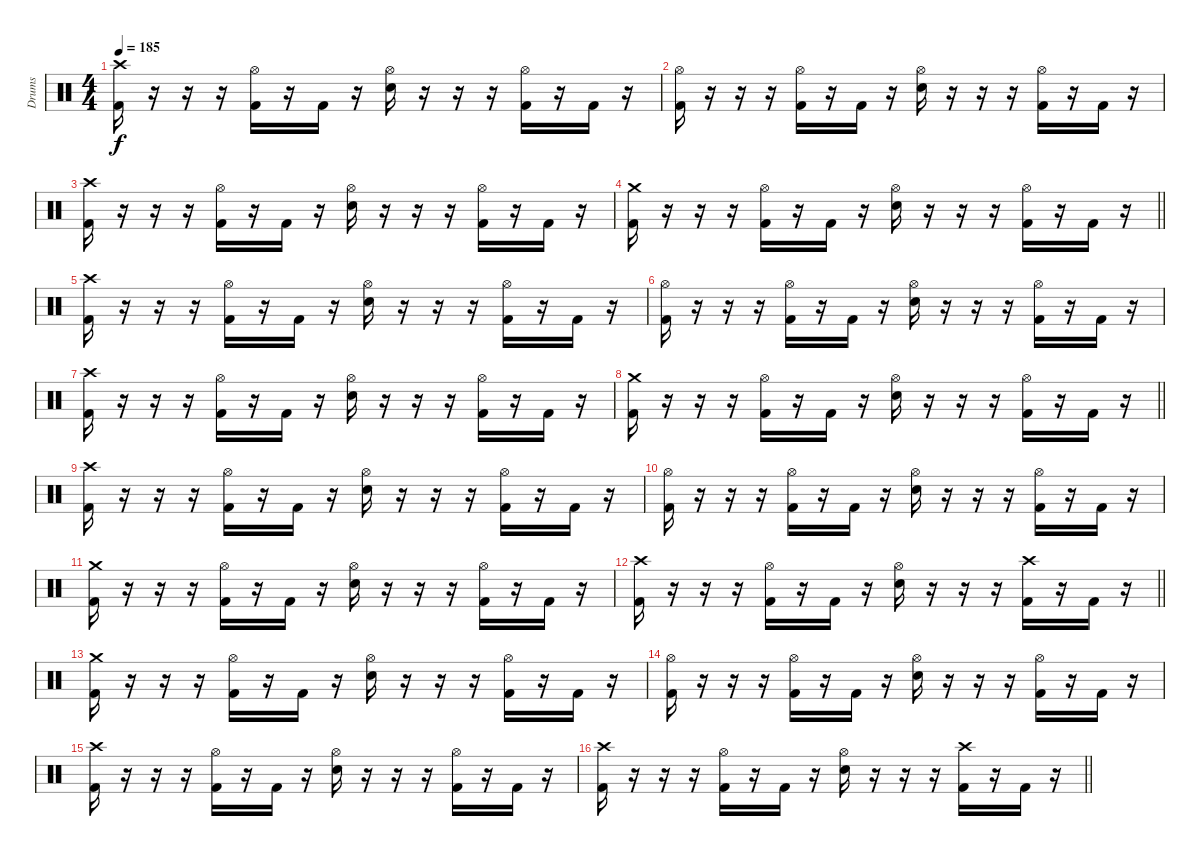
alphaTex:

\track ("Drums" "Drums") {instrument percussion}
\staff {score}
\articulation defaults
\ts (4 4)
\section ("" "")
\tempo 185
\clef neutral
\ks c
("Crash high (hit)" "Kick (hit) 2").16{dy f} r.16 r.16 r.16 ("Hi-Hat (open)" "Kick (hit) 2").16 r.16 "Kick (hit) 2".16 r.16 ("Hi-Hat (open)" "Electric Snare (hit)").16 r.16 r.16 r.16 ("Hi-Hat (open)" "Kick (hit) 2").16 r.16 "Kick (hit) 2".16 r.16 |
("Hi-Hat (open)" "Kick (hit) 2").16 r.16 r.16 r.16 ("Hi-Hat (open)" "Kick (hit) 2").16 r.16 "Kick (hit) 2".16 r.16 ("Hi-Hat (open)" "Electric Snare (hit)").16 r.16 r.16 r.16 ("Hi-Hat (open)" "Kick (hit) 2").16 r.16 "Kick (hit) 2".16 r.16 |
("Crash high (hit)" "Kick (hit) 2").16 r.16 r.16 r.16 ("Hi-Hat (open)" "Kick (hit) 2").16 r.16 "Kick (hit) 2".16 r.16 ("Hi-Hat (open)" "Electric Snare (hit)").16 r.16 r.16 r.16 ("Hi-Hat (open)" "Kick (hit) 2").16 r.16 "Kick (hit) 2".16 r.16 |
\barLineRight lightlight
("Crash medium (hit)" "Kick (hit) 2").16 r.16 r.16 r.16 ("Hi-Hat (open)" "Kick (hit) 2").16 r.16 "Kick (hit) 2".16 r.16 ("Hi-Hat (open)" "Electric Snare (hit)").16 r.16 r.16 r.16 ("Hi-Hat (open)" "Kick (hit) 2").16 r.16 "Kick (hit) 2".16 r.16 |
\section ("" "")
("Crash high (hit)" "Kick (hit) 2").16 r.16 r.16 r.16 ("Hi-Hat (open)" "Kick (hit) 2").16 r.16 "Kick (hit) 2".16 r.16 ("Hi-Hat (open)" "Electric Snare (hit)").16 r.16 r.16 r.16 ("Hi-Hat (open)" "Kick (hit) 2").16 r.16 "Kick (hit) 2".16 r.16 |
("Hi-Hat (open)" "Kick (hit) 2").16 r.16 r.16 r.16 ("Hi-Hat (open)" "Kick (hit) 2").16 r.16 "Kick (hit) 2".16 r.16 ("Hi-Hat (open)" "Electric Snare (hit)").16 r.16 r.16 r.16 ("Hi-Hat (open)" "Kick (hit) 2").16 r.16 "Kick (hit) 2".16 r.16 |
("Crash high (hit)" "Kick (hit) 2").16 r.16 r.16 r.16 ("Hi-Hat (open)" "Kick (hit) 2").16 r.16 "Kick (hit) 2".16 r.16 ("Hi-Hat (open)" "Electric Snare (hit)").16 r.16 r.16 r.16 ("Hi-Hat (open)" "Kick (hit) 2").16 r.16 "Kick (hit) 2".16 r.16 |
\barLineRight lightlight
("Crash medium (hit)" "Kick (hit) 2").16 r.16 r.16 r.16 ("Hi-Hat (open)" "Kick (hit) 2").16 r.16 "Kick (hit) 2".16 r.16 ("Hi-Hat (open)" "Electric Snare (hit)").16 r.16 r.16 r.16 ("Hi-Hat (open)" "Kick (hit) 2").16 r.16 "Kick (hit) 2".16 r.16 |
("Crash high (hit)" "Kick (hit) 2").16 r.16 r.16 r.16 ("Hi-Hat (open)" "Kick (hit) 2").16 r.16 "Kick (hit) 2".16 r.16 ("Hi-Hat (open)" "Electric Snare (hit)").16 r.16 r.16 r.16 ("Hi-Hat (open)" "Kick (hit) 2").16 r.16 "Kick (hit) 2".16 r.16 |
("Hi-Hat (open)" "Kick (hit) 2").16 r.16 r.16 r.16 ("Hi-Hat (open)" "Kick (hit) 2").16 r.16 "Kick (hit) 2".16 r.16 ("Hi-Hat (open)" "Electric Snare (hit)").16 r.16 r.16 r.16 ("Hi-Hat (open)" "Kick (hit) 2").16 r.16 "Kick (hit) 2".16 r.16 |
("Crash medium (hit)" "Kick (hit) 2").16 r.16 r.16 r.16 ("Hi-Hat (open)" "Kick (hit) 2").16 r.16 "Kick (hit) 2".16 r.16 ("Hi-Hat (open)" "Electric Snare (hit)").16 r.16 r.16 r.16 ("Hi-Hat (open)" "Kick (hit) 2").16 r.16 "Kick (hit) 2".16 r.16 |
\barLineRight lightlight
("Crash high (hit)" "Kick (hit) 2").16 r.16 r.16 r.16 ("Hi-Hat (open)" "Kick (hit) 2").16 r.16 "Kick (hit) 2".16 r.16 ("Hi-Hat (open)" "Electric Snare (hit)").16 r.16 r.16 r.16 ("Crash high (hit)" "Kick (hit) 2").16 r.16 "Kick (hit) 2".16 r.16 |
("Crash medium (hit)" "Kick (hit) 2").16 r.16 r.16 r.16 ("Hi-Hat (open)" "Kick (hit) 2").16 r.16 "Kick (hit) 2".16 r.16 ("Hi-Hat (open)" "Electric Snare (hit)").16 r.16 r.16 r.16 ("Hi-Hat (open)" "Kick (hit) 2").16 r.16 "Kick (hit) 2".16 r.16 |
("Hi-Hat (open)" "Kick (hit) 2").16 r.16 r.16 r.16 ("Hi-Hat (open)" "Kick (hit) 2").16 r.16 "Kick (hit) 2".16 r.16 ("Hi-Hat (open)" "Electric Snare (hit)").16 r.16 r.16 r.16 ("Hi-Hat (open)" "Kick (hit) 2").16 r.16 "Kick (hit) 2".16 r.16 |
("Crash high (hit)" "Kick (hit) 2").16 r.16 r.16 r.16 ("Hi-Hat (open)" "Kick (hit) 2").16 r.16 "Kick (hit) 2".16 r.16 ("Hi-Hat (open)" "Electric Snare (hit)").16 r.16 r.16 r.16 ("Hi-Hat (open)" "Kick (hit) 2").16 r.16 "Kick (hit) 2".16 r.16 |
\barLineRight lightlight
("Crash high (hit)" "Kick (hit) 2").16 r.16 r.16 r.16 ("Hi-Hat (open)" "Kick (hit) 2").16 r.16 "Kick (hit) 2".16 r.16 ("Hi-Hat (open)" "Electric Snare (hit)").16 r.16 r.16 r.16 ("Crash high (hit)" "Kick (hit) 2").16 r.16 "Kick (hit) 2".16 r.16
